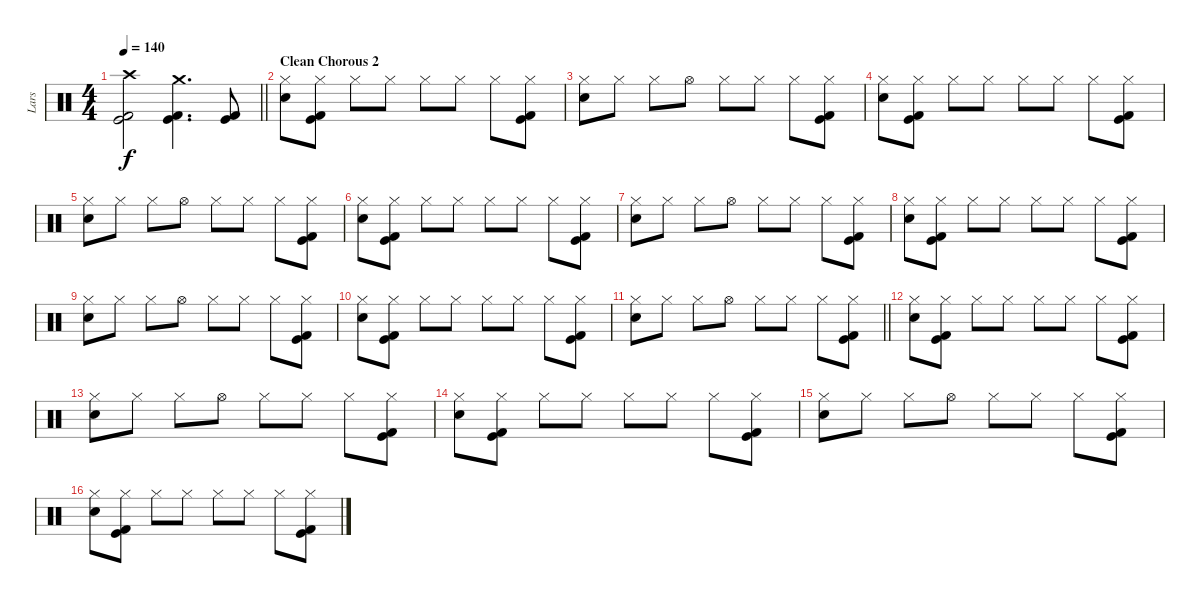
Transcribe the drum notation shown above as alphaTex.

\track ("Lars" "Lars") {instrument percussion}
\staff {score}
\articulation defaults
\ts (4 4)
\tempo 140
\clef neutral
\barLineRight lightlight
\ks c
("Crash high (hit)" "Kick (hit)" "Kick (hit) 2").2{dy f} ("Crash medium (hit)" "Kick (hit)" "Kick (hit) 2").4{d} ("Kick (hit)" "Kick (hit) 2").8 |
\section ("" "Clean Chorous 2")
("Hi-Hat (closed)" "Electric Snare (hit)").8 ("Hi-Hat (closed)" "Kick (hit)" "Kick (hit) 2").8 "Hi-Hat (closed)".8 "Hi-Hat (closed)".8 "Hi-Hat (closed)".8 "Hi-Hat (closed)".8 "Hi-Hat (closed)".8 ("Hi-Hat (closed)" "Kick (hit)" "Kick (hit) 2").8 |
("Hi-Hat (closed)" "Electric Snare (hit)").8 "Hi-Hat (closed)".8 "Hi-Hat (closed)".8 "Hi-Hat (open)".8 "Hi-Hat (closed)".8 "Hi-Hat (closed)".8 "Hi-Hat (closed)".8 ("Hi-Hat (closed)" "Kick (hit)" "Kick (hit) 2").8 |
("Hi-Hat (closed)" "Electric Snare (hit)").8 ("Hi-Hat (closed)" "Kick (hit)" "Kick (hit) 2").8 "Hi-Hat (closed)".8 "Hi-Hat (closed)".8 "Hi-Hat (closed)".8 "Hi-Hat (closed)".8 "Hi-Hat (closed)".8 ("Hi-Hat (closed)" "Kick (hit)" "Kick (hit) 2").8 |
("Hi-Hat (closed)" "Electric Snare (hit)").8 "Hi-Hat (closed)".8 "Hi-Hat (closed)".8 "Hi-Hat (open)".8 "Hi-Hat (closed)".8 "Hi-Hat (closed)".8 "Hi-Hat (closed)".8 ("Hi-Hat (closed)" "Kick (hit)" "Kick (hit) 2").8 |
("Hi-Hat (closed)" "Electric Snare (hit)").8 ("Hi-Hat (closed)" "Kick (hit)" "Kick (hit) 2").8 "Hi-Hat (closed)".8 "Hi-Hat (closed)".8 "Hi-Hat (closed)".8 "Hi-Hat (closed)".8 "Hi-Hat (closed)".8 ("Hi-Hat (closed)" "Kick (hit)" "Kick (hit) 2").8 |
("Hi-Hat (closed)" "Electric Snare (hit)").8 "Hi-Hat (closed)".8 "Hi-Hat (closed)".8 "Hi-Hat (open)".8 "Hi-Hat (closed)".8 "Hi-Hat (closed)".8 "Hi-Hat (closed)".8 ("Hi-Hat (closed)" "Kick (hit)" "Kick (hit) 2").8 |
("Hi-Hat (closed)" "Electric Snare (hit)").8 ("Hi-Hat (closed)" "Kick (hit)" "Kick (hit) 2").8 "Hi-Hat (closed)".8 "Hi-Hat (closed)".8 "Hi-Hat (closed)".8 "Hi-Hat (closed)".8 "Hi-Hat (closed)".8 ("Hi-Hat (closed)" "Kick (hit)" "Kick (hit) 2").8 |
("Hi-Hat (closed)" "Electric Snare (hit)").8 "Hi-Hat (closed)".8 "Hi-Hat (closed)".8 "Hi-Hat (open)".8 "Hi-Hat (closed)".8 "Hi-Hat (closed)".8 "Hi-Hat (closed)".8 ("Hi-Hat (closed)" "Kick (hit)" "Kick (hit) 2").8 |
("Hi-Hat (closed)" "Electric Snare (hit)").8 ("Hi-Hat (closed)" "Kick (hit)" "Kick (hit) 2").8 "Hi-Hat (closed)".8 "Hi-Hat (closed)".8 "Hi-Hat (closed)".8 "Hi-Hat (closed)".8 "Hi-Hat (closed)".8 ("Hi-Hat (closed)" "Kick (hit)" "Kick (hit) 2").8 |
\barLineRight lightlight
("Hi-Hat (closed)" "Electric Snare (hit)").8 "Hi-Hat (closed)".8 "Hi-Hat (closed)".8 "Hi-Hat (open)".8 "Hi-Hat (closed)".8 "Hi-Hat (closed)".8 "Hi-Hat (closed)".8 ("Hi-Hat (closed)" "Kick (hit)" "Kick (hit) 2").8 |
\section ("" "")
("Hi-Hat (closed)" "Electric Snare (hit)").8 ("Hi-Hat (closed)" "Kick (hit)" "Kick (hit) 2").8 "Hi-Hat (closed)".8 "Hi-Hat (closed)".8 "Hi-Hat (closed)".8 "Hi-Hat (closed)".8 "Hi-Hat (closed)".8 ("Hi-Hat (closed)" "Kick (hit)" "Kick (hit) 2").8 |
("Hi-Hat (closed)" "Electric Snare (hit)").8 "Hi-Hat (closed)".8 "Hi-Hat (closed)".8 "Hi-Hat (open)".8 "Hi-Hat (closed)".8 "Hi-Hat (closed)".8 "Hi-Hat (closed)".8 ("Hi-Hat (closed)" "Kick (hit)" "Kick (hit) 2").8 |
("Hi-Hat (closed)" "Electric Snare (hit)").8 ("Hi-Hat (closed)" "Kick (hit)" "Kick (hit) 2").8 "Hi-Hat (closed)".8 "Hi-Hat (closed)".8 "Hi-Hat (closed)".8 "Hi-Hat (closed)".8 "Hi-Hat (closed)".8 ("Hi-Hat (closed)" "Kick (hit)" "Kick (hit) 2").8 |
("Hi-Hat (closed)" "Electric Snare (hit)").8 "Hi-Hat (closed)".8 "Hi-Hat (closed)".8 "Hi-Hat (open)".8 "Hi-Hat (closed)".8 "Hi-Hat (closed)".8 "Hi-Hat (closed)".8 ("Hi-Hat (closed)" "Kick (hit)" "Kick (hit) 2").8 |
("Hi-Hat (closed)" "Electric Snare (hit)").8 ("Hi-Hat (closed)" "Kick (hit)" "Kick (hit) 2").8 "Hi-Hat (closed)".8 "Hi-Hat (closed)".8 "Hi-Hat (closed)".8 "Hi-Hat (closed)".8 "Hi-Hat (closed)".8 ("Hi-Hat (closed)" "Kick (hit)" "Kick (hit) 2").8
